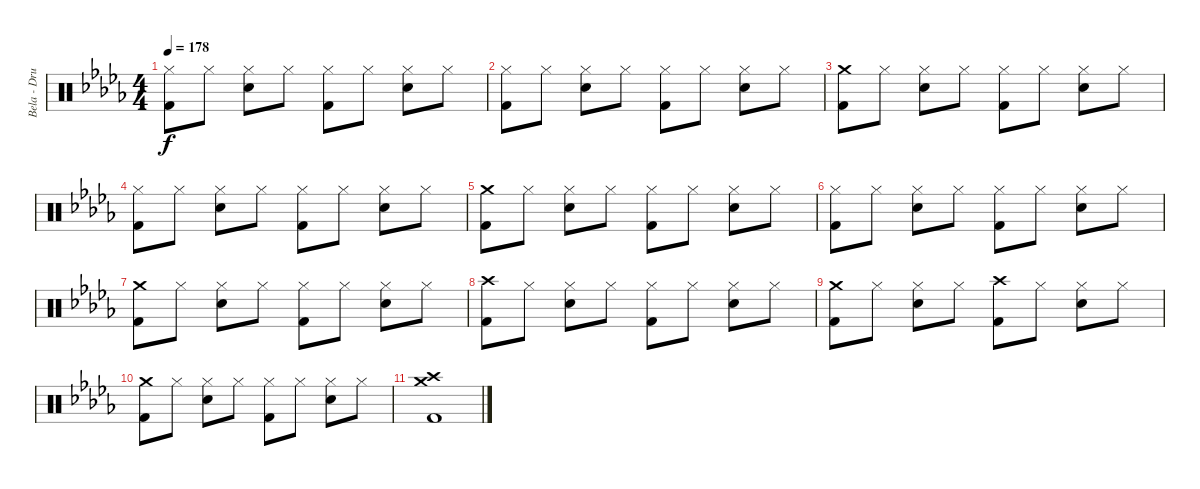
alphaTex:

\track ("Bela - Drums" "Bela - Dru") {instrument percussion}
\staff {score}
\articulation defaults
\ts (4 4)
\tempo 178
\clef neutral
\ks db
("Hi-Hat (closed)" "Kick (hit) 2").8{dy f} "Hi-Hat (closed)".8 ("Hi-Hat (closed)" "Snare (hit) 2").8 "Hi-Hat (closed)".8 ("Hi-Hat (closed)" "Kick (hit) 2").8 "Hi-Hat (closed)".8 ("Hi-Hat (closed)" "Snare (hit) 2").8 "Hi-Hat (closed)".8 |
("Hi-Hat (closed)" "Kick (hit) 2").8 "Hi-Hat (closed)".8 ("Hi-Hat (closed)" "Snare (hit) 2").8 "Hi-Hat (closed)".8 ("Hi-Hat (closed)" "Kick (hit) 2").8 "Hi-Hat (closed)".8 ("Hi-Hat (closed)" "Snare (hit) 2").8 "Hi-Hat (closed)".8 |
("Crash medium (hit)" "Kick (hit) 2").8 "Hi-Hat (closed)".8 ("Hi-Hat (closed)" "Snare (hit) 2").8 "Hi-Hat (closed)".8 ("Hi-Hat (closed)" "Kick (hit) 2").8 "Hi-Hat (closed)".8 ("Hi-Hat (closed)" "Snare (hit) 2").8 "Hi-Hat (closed)".8 |
("Hi-Hat (closed)" "Kick (hit) 2").8 "Hi-Hat (closed)".8 ("Hi-Hat (closed)" "Snare (hit) 2").8 "Hi-Hat (closed)".8 ("Hi-Hat (closed)" "Kick (hit) 2").8 "Hi-Hat (closed)".8 ("Hi-Hat (closed)" "Snare (hit) 2").8 "Hi-Hat (closed)".8 |
("Crash medium (hit)" "Kick (hit) 2").8 "Hi-Hat (closed)".8 ("Hi-Hat (closed)" "Snare (hit) 2").8 "Hi-Hat (closed)".8 ("Hi-Hat (closed)" "Kick (hit) 2").8 "Hi-Hat (closed)".8 ("Hi-Hat (closed)" "Snare (hit) 2").8 "Hi-Hat (closed)".8 |
("Hi-Hat (closed)" "Kick (hit) 2").8 "Hi-Hat (closed)".8 ("Hi-Hat (closed)" "Snare (hit) 2").8 "Hi-Hat (closed)".8 ("Hi-Hat (closed)" "Kick (hit) 2").8 "Hi-Hat (closed)".8 ("Hi-Hat (closed)" "Snare (hit) 2").8 "Hi-Hat (closed)".8 |
("Crash medium (hit)" "Kick (hit) 2").8 "Hi-Hat (closed)".8 ("Hi-Hat (closed)" "Snare (hit) 2").8 "Hi-Hat (closed)".8 ("Hi-Hat (closed)" "Kick (hit) 2").8 "Hi-Hat (closed)".8 ("Hi-Hat (closed)" "Snare (hit) 2").8 "Hi-Hat (closed)".8 |
("Crash high (hit)" "Kick (hit) 2").8 "Hi-Hat (closed)".8 ("Hi-Hat (closed)" "Snare (hit) 2").8 "Hi-Hat (closed)".8 ("Hi-Hat (closed)" "Kick (hit) 2").8 "Hi-Hat (closed)".8 ("Hi-Hat (closed)" "Snare (hit) 2").8 "Hi-Hat (closed)".8 |
("Crash medium (hit)" "Kick (hit) 2").8 "Hi-Hat (closed)".8 ("Hi-Hat (closed)" "Snare (hit) 2").8 "Hi-Hat (closed)".8 ("Crash high (hit)" "Kick (hit) 2").8 "Hi-Hat (closed)".8 ("Hi-Hat (closed)" "Snare (hit) 2").8 "Hi-Hat (closed)".8 |
("Crash medium (hit)" "Kick (hit) 2").8 "Hi-Hat (closed)".8 ("Hi-Hat (closed)" "Snare (hit) 2").8 "Hi-Hat (closed)".8 ("Hi-Hat (closed)" "Kick (hit) 2").8 "Hi-Hat (closed)".8 ("Hi-Hat (closed)" "Snare (hit) 2").8 "Hi-Hat (closed)".8 |
("Crash high (hit)" "Crash medium (hit)" "Kick (hit) 2").1
